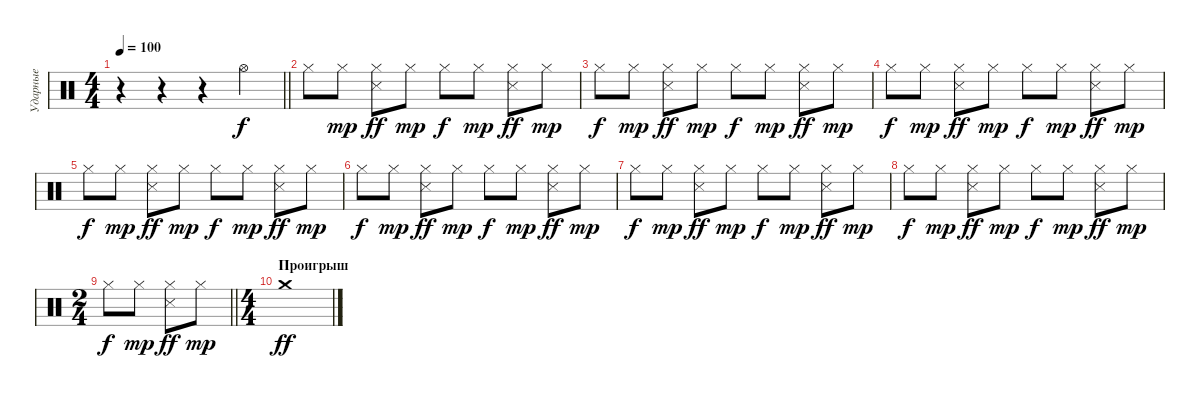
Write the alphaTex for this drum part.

\track ("Ударные" "Ударные") {instrument percussion}
\staff {score}
\articulation defaults
\ts (4 4)
\tempo 100
\clef neutral
\barLineRight lightlight
\ks c
r.4{dy f} r.4 r.4 "Hi-Hat (open)".4 |
\section ("" " ")
"Hi-Hat (closed)".8 "Hi-Hat (closed)".8{dy mp} ("Hi-Hat (closed)" "Snare (side stick) 3").8{dy ff} "Hi-Hat (closed)".8{dy mp} "Hi-Hat (closed)".8{dy f} "Hi-Hat (closed)".8{dy mp} ("Hi-Hat (closed)" "Snare (side stick) 3").8{dy ff} "Hi-Hat (closed)".8{dy mp} |
"Hi-Hat (closed)".8{dy f} "Hi-Hat (closed)".8{dy mp} ("Hi-Hat (closed)" "Snare (side stick) 3").8{dy ff} "Hi-Hat (closed)".8{dy mp} "Hi-Hat (closed)".8{dy f} "Hi-Hat (closed)".8{dy mp} ("Hi-Hat (closed)" "Snare (side stick) 3").8{dy ff} "Hi-Hat (closed)".8{dy mp} |
"Hi-Hat (closed)".8{dy f} "Hi-Hat (closed)".8{dy mp} ("Hi-Hat (closed)" "Snare (side stick) 3").8{dy ff} "Hi-Hat (closed)".8{dy mp} "Hi-Hat (closed)".8{dy f} "Hi-Hat (closed)".8{dy mp} ("Hi-Hat (closed)" "Snare (side stick) 3").8{dy ff} "Hi-Hat (closed)".8{dy mp} |
"Hi-Hat (closed)".8{dy f} "Hi-Hat (closed)".8{dy mp} ("Hi-Hat (closed)" "Snare (side stick) 3").8{dy ff} "Hi-Hat (closed)".8{dy mp} "Hi-Hat (closed)".8{dy f} "Hi-Hat (closed)".8{dy mp} ("Hi-Hat (closed)" "Snare (side stick) 3").8{dy ff} "Hi-Hat (closed)".8{dy mp} |
"Hi-Hat (closed)".8{dy f} "Hi-Hat (closed)".8{dy mp} ("Hi-Hat (closed)" "Snare (side stick) 3").8{dy ff} "Hi-Hat (closed)".8{dy mp} "Hi-Hat (closed)".8{dy f} "Hi-Hat (closed)".8{dy mp} ("Hi-Hat (closed)" "Snare (side stick) 3").8{dy ff} "Hi-Hat (closed)".8{dy mp} |
"Hi-Hat (closed)".8{dy f} "Hi-Hat (closed)".8{dy mp} ("Hi-Hat (closed)" "Snare (side stick) 3").8{dy ff} "Hi-Hat (closed)".8{dy mp} "Hi-Hat (closed)".8{dy f} "Hi-Hat (closed)".8{dy mp} ("Hi-Hat (closed)" "Snare (side stick) 3").8{dy ff} "Hi-Hat (closed)".8{dy mp} |
"Hi-Hat (closed)".8{dy f} "Hi-Hat (closed)".8{dy mp} ("Hi-Hat (closed)" "Snare (side stick) 3").8{dy ff} "Hi-Hat (closed)".8{dy mp} "Hi-Hat (closed)".8{dy f} "Hi-Hat (closed)".8{dy mp} ("Hi-Hat (closed)" "Snare (side stick) 3").8{dy ff} "Hi-Hat (closed)".8{dy mp} |
\ts (2 4)
\barLineRight lightlight "Hi-Hat (closed)".8{dy f} "Hi-Hat (closed)".8{dy mp}
("Hi-Hat (closed)" "Snare (side stick) 3").8{dy ff} "Hi-Hat (closed)".8{dy mp} |
\ts (4 4)
\section ("" "Проигрыш")
"Crash medium (hit)".1{dy ff}
